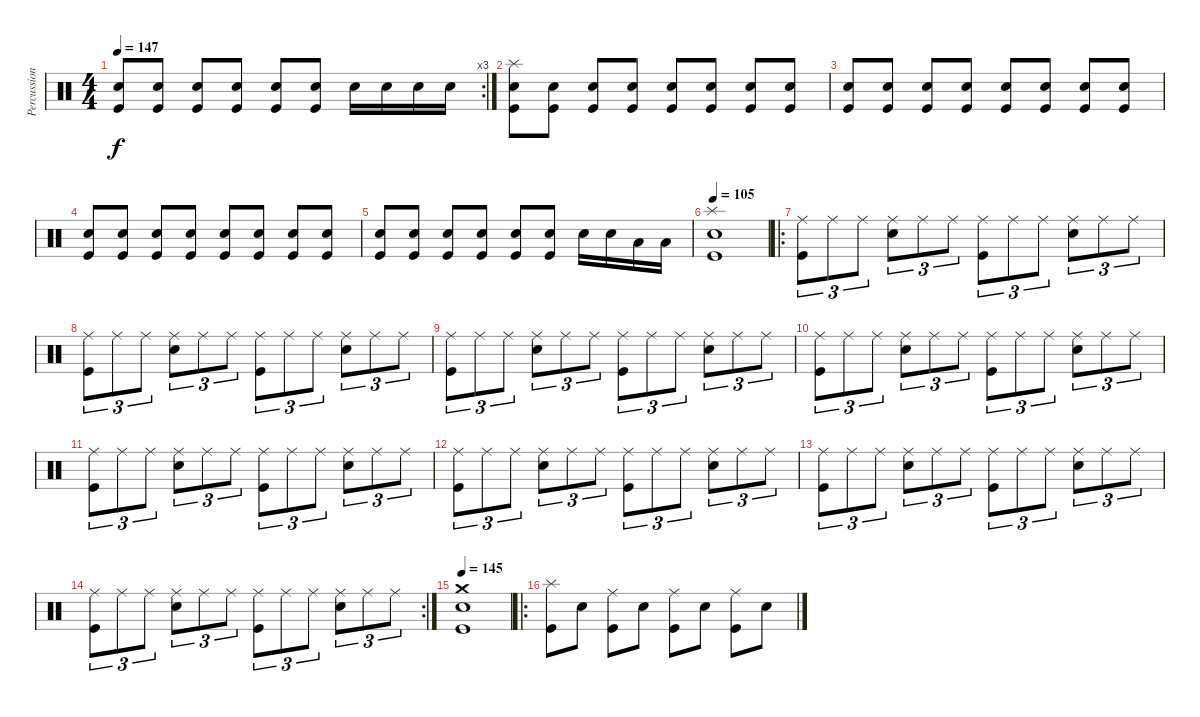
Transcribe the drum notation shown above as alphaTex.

\track ("Percussions" "Percussion") {instrument percussion}
\staff {score}
\articulation defaults
\rc 3
\ts (4 4)
\tempo 147
\clef neutral
\ks c
("Electric Snare (hit)" "Kick (hit)").8{dy f} ("Electric Snare (hit)" "Kick (hit)").8 ("Electric Snare (hit)" "Kick (hit)").8 ("Electric Snare (hit)" "Kick (hit)").8 ("Electric Snare (hit)" "Kick (hit)").8 ("Electric Snare (hit)" "Kick (hit)").8 "Electric Snare (hit)".16 "Electric Snare (hit)".16 "Electric Snare (hit)".16 "Electric Snare (hit)".16 |
("Splash (hit)" "Electric Snare (hit)" "Kick (hit)").8 ("Electric Snare (hit)" "Kick (hit)").8 ("Electric Snare (hit)" "Kick (hit)").8 ("Electric Snare (hit)" "Kick (hit)").8 ("Electric Snare (hit)" "Kick (hit)").8 ("Electric Snare (hit)" "Kick (hit)").8 ("Electric Snare (hit)" "Kick (hit)").8 ("Electric Snare (hit)" "Kick (hit)").8 |
("Electric Snare (hit)" "Kick (hit)").8 ("Electric Snare (hit)" "Kick (hit)").8 ("Electric Snare (hit)" "Kick (hit)").8 ("Electric Snare (hit)" "Kick (hit)").8 ("Electric Snare (hit)" "Kick (hit)").8 ("Electric Snare (hit)" "Kick (hit)").8 ("Electric Snare (hit)" "Kick (hit)").8 ("Electric Snare (hit)" "Kick (hit)").8 |
("Electric Snare (hit)" "Kick (hit)").8 ("Electric Snare (hit)" "Kick (hit)").8 ("Electric Snare (hit)" "Kick (hit)").8 ("Electric Snare (hit)" "Kick (hit)").8 ("Electric Snare (hit)" "Kick (hit)").8 ("Electric Snare (hit)" "Kick (hit)").8 ("Electric Snare (hit)" "Kick (hit)").8 ("Electric Snare (hit)" "Kick (hit)").8 |
("Electric Snare (hit)" "Kick (hit)").8 ("Electric Snare (hit)" "Kick (hit)").8 ("Electric Snare (hit)" "Kick (hit)").8 ("Electric Snare (hit)" "Kick (hit)").8 ("Electric Snare (hit)" "Kick (hit)").8 ("Electric Snare (hit)" "Kick (hit)").8 "Electric Snare (hit)".16 "Electric Snare (hit)".16 "Low Tom (hit)".16 "Low Tom (hit)".16 |
\tempo 105
("Splash (hit)" "Electric Snare (hit)" "Kick (hit)").1 |
\ro
("Ride (middle)" "Kick (hit)").8{tu (3 2)} "Ride (middle)".8{tu (3 2)} "Ride (middle)".8{tu (3 2)} ("Ride (middle)" "Electric Snare (hit)").8{tu (3 2)} "Ride (middle)".8{tu (3 2)} "Ride (middle)".8{tu (3 2)} ("Ride (middle)" "Kick (hit)").8{tu (3 2)} "Ride (middle)".8{tu (3 2)} "Ride (middle)".8{tu (3 2)} ("Ride (middle)" "Electric Snare (hit)").8{tu (3 2)} "Ride (middle)".8{tu (3 2)} "Ride (middle)".8{tu (3 2)} |
("Ride (middle)" "Kick (hit)").8{tu (3 2)} "Ride (middle)".8{tu (3 2)} "Ride (middle)".8{tu (3 2)} ("Ride (middle)" "Electric Snare (hit)").8{tu (3 2)} "Ride (middle)".8{tu (3 2)} "Ride (middle)".8{tu (3 2)} ("Ride (middle)" "Kick (hit)").8{tu (3 2)} "Ride (middle)".8{tu (3 2)} "Ride (middle)".8{tu (3 2)} ("Ride (middle)" "Electric Snare (hit)").8{tu (3 2)} "Ride (middle)".8{tu (3 2)} "Ride (middle)".8{tu (3 2)} |
("Ride (middle)" "Kick (hit)").8{tu (3 2)} "Ride (middle)".8{tu (3 2)} "Ride (middle)".8{tu (3 2)} ("Ride (middle)" "Electric Snare (hit)").8{tu (3 2)} "Ride (middle)".8{tu (3 2)} "Ride (middle)".8{tu (3 2)} ("Ride (middle)" "Kick (hit)").8{tu (3 2)} "Ride (middle)".8{tu (3 2)} "Ride (middle)".8{tu (3 2)} ("Ride (middle)" "Electric Snare (hit)").8{tu (3 2)} "Ride (middle)".8{tu (3 2)} "Ride (middle)".8{tu (3 2)} |
("Ride (middle)" "Kick (hit)").8{tu (3 2)} "Ride (middle)".8{tu (3 2)} "Ride (middle)".8{tu (3 2)} ("Ride (middle)" "Electric Snare (hit)").8{tu (3 2)} "Ride (middle)".8{tu (3 2)} "Ride (middle)".8{tu (3 2)} ("Ride (middle)" "Kick (hit)").8{tu (3 2)} "Ride (middle)".8{tu (3 2)} "Ride (middle)".8{tu (3 2)} ("Ride (middle)" "Electric Snare (hit)").8{tu (3 2)} "Ride (middle)".8{tu (3 2)} "Ride (middle)".8{tu (3 2)} |
("Ride (middle)" "Kick (hit)").8{tu (3 2)} "Ride (middle)".8{tu (3 2)} "Ride (middle)".8{tu (3 2)} ("Ride (middle)" "Electric Snare (hit)").8{tu (3 2)} "Ride (middle)".8{tu (3 2)} "Ride (middle)".8{tu (3 2)} ("Ride (middle)" "Kick (hit)").8{tu (3 2)} "Ride (middle)".8{tu (3 2)} "Ride (middle)".8{tu (3 2)} ("Ride (middle)" "Electric Snare (hit)").8{tu (3 2)} "Ride (middle)".8{tu (3 2)} "Ride (middle)".8{tu (3 2)} |
("Ride (middle)" "Kick (hit)").8{tu (3 2)} "Ride (middle)".8{tu (3 2)} "Ride (middle)".8{tu (3 2)} ("Ride (middle)" "Electric Snare (hit)").8{tu (3 2)} "Ride (middle)".8{tu (3 2)} "Ride (middle)".8{tu (3 2)} ("Ride (middle)" "Kick (hit)").8{tu (3 2)} "Ride (middle)".8{tu (3 2)} "Ride (middle)".8{tu (3 2)} ("Ride (middle)" "Electric Snare (hit)").8{tu (3 2)} "Ride (middle)".8{tu (3 2)} "Ride (middle)".8{tu (3 2)} |
("Ride (middle)" "Kick (hit)").8{tu (3 2)} "Ride (middle)".8{tu (3 2)} "Ride (middle)".8{tu (3 2)} ("Ride (middle)" "Electric Snare (hit)").8{tu (3 2)} "Ride (middle)".8{tu (3 2)} "Ride (middle)".8{tu (3 2)} ("Ride (middle)" "Kick (hit)").8{tu (3 2)} "Ride (middle)".8{tu (3 2)} "Ride (middle)".8{tu (3 2)} ("Ride (middle)" "Electric Snare (hit)").8{tu (3 2)} "Ride (middle)".8{tu (3 2)} "Ride (middle)".8{tu (3 2)} |
\rc 2
("Ride (middle)" "Kick (hit)").8{tu (3 2)} "Ride (middle)".8{tu (3 2)} "Ride (middle)".8{tu (3 2)} ("Ride (middle)" "Electric Snare (hit)").8{tu (3 2)} "Ride (middle)".8{tu (3 2)} "Ride (middle)".8{tu (3 2)} ("Ride (middle)" "Kick (hit)").8{tu (3 2)} "Ride (middle)".8{tu (3 2)} "Ride (middle)".8{tu (3 2)} ("Ride (middle)" "Electric Snare (hit)").8{tu (3 2)} "Ride (middle)".8{tu (3 2)} "Ride (middle)".8{tu (3 2)} |
\tempo 145
("Crash medium (hit)" "Electric Snare (hit)" "Kick (hit)").1 |
\ro
("Splash (hit)" "Kick (hit)").8 "Electric Snare (hit)".8 ("Ride (middle)" "Kick (hit)").8 "Electric Snare (hit)".8 ("Ride (middle)" "Kick (hit)").8 "Electric Snare (hit)".8 ("Ride (middle)" "Kick (hit)").8 "Electric Snare (hit)".8
